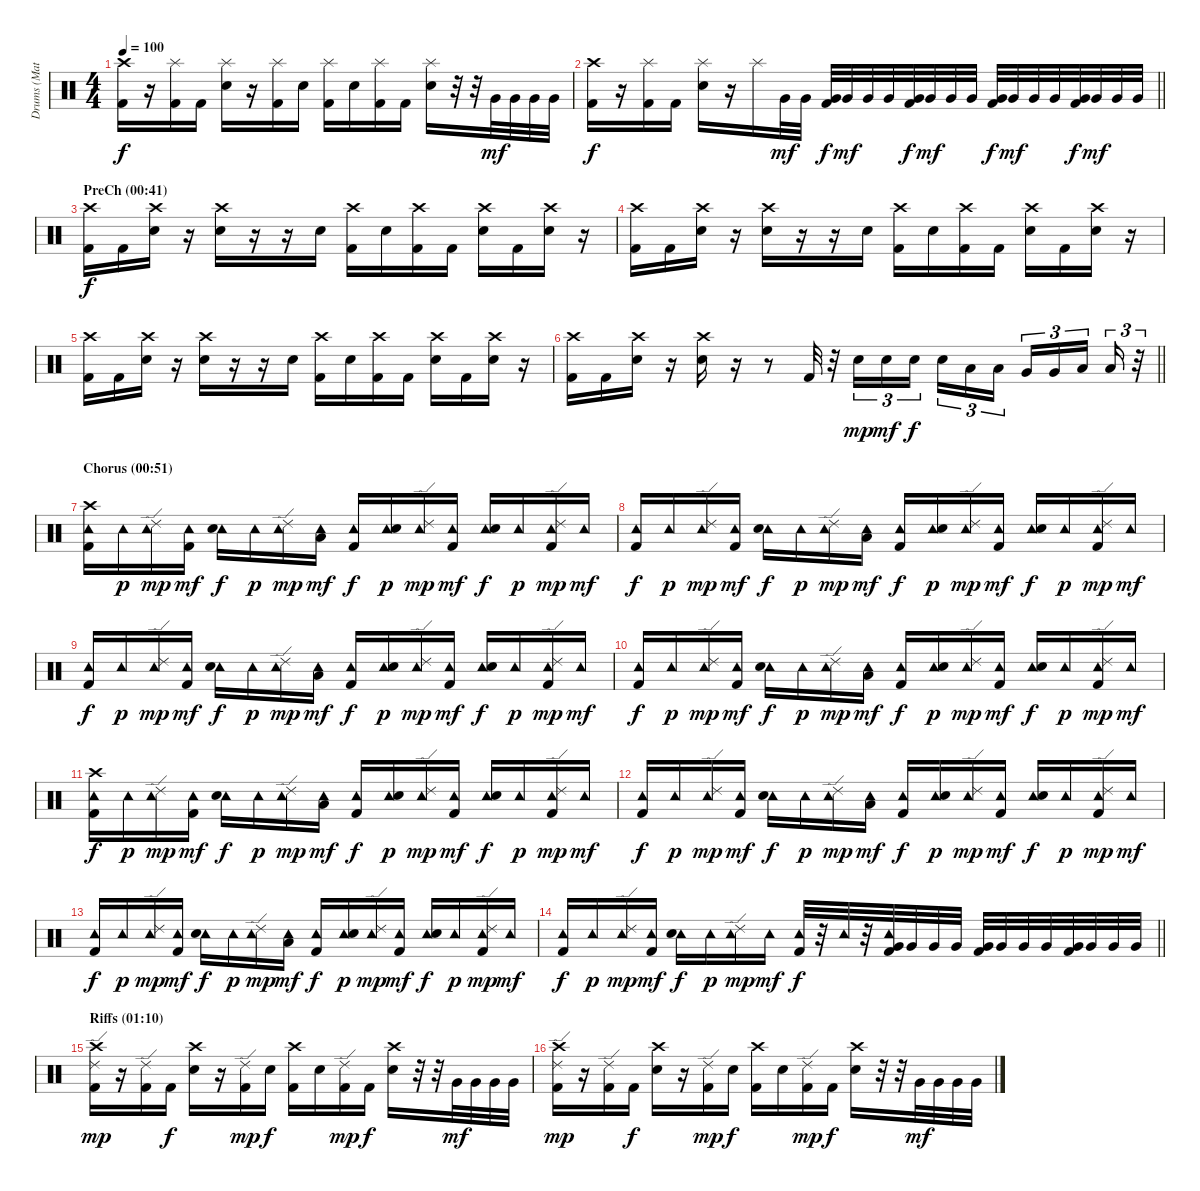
\track ("Drums (Matt Sorum)" "Drums (Mat") {instrument percussion}
\staff {score}
\articulation defaults
\ts (4 4)
\tempo 100
\clef neutral
\ks c
("Crash high (hit)" "Kick (hit) 2").16{dy f} r.16 ("Splash (hit)" "Kick (hit) 2").16 "Kick (hit) 2".16 ("Splash (hit)" "Electric Snare (hit)").16 r.16 ("Splash (hit)" "Kick (hit) 2").16 "Electric Snare (hit)".16 ("Splash (hit)" "Kick (hit) 2").16 "Electric Snare (hit)".16 ("Splash (hit)" "Kick (hit) 2").16 "Kick (hit) 2".16 ("Splash (hit)" "Electric Snare (hit)").16 r.32 r.32 "Very Low Tom (hit)".32{dy mf} "Very Low Tom (hit)".32 "Very Low Tom (hit)".32 "Very Low Tom (hit)".32 |
\barLineRight lightlight
("Crash high (hit)" "Kick (hit) 2").16{dy f} r.16 ("Splash (hit)" "Kick (hit) 2").16 "Kick (hit) 2".16 ("Splash (hit)" "Electric Snare (hit)").16 r.16 "Splash (hit)".16 "Very Low Tom (hit)".32{dy mf} "Very Low Tom (hit)".32 ("Very Low Tom (hit)" "Kick (hit) 2").32{dy f} "Very Low Tom (hit)".32{dy mf} "Very Low Tom (hit)".32 "Very Low Tom (hit)".32 ("Very Low Tom (hit)" "Kick (hit) 2").32{dy f} "Very Low Tom (hit)".32{dy mf} "Very Low Tom (hit)".32 "Very Low Tom (hit)".32 ("Very Low Tom (hit)" "Kick (hit) 2").32{dy f} "Very Low Tom (hit)".32{dy mf} "Very Low Tom (hit)".32 "Very Low Tom (hit)".32 ("Very Low Tom (hit)" "Kick (hit) 2").32{dy f} "Very Low Tom (hit)".32{dy mf} "Very Low Tom (hit)".32 "Very Low Tom (hit)".32 |
\section ("" "PreCh (00:41)")
("Crash high (hit)" "Kick (hit) 2").16{dy f} "Kick (hit) 2".16 ("Crash high (hit)" "Electric Snare (hit)").16 r.16 ("Crash high (hit)" "Electric Snare (hit)").16 r.16 r.16 "Electric Snare (hit)".16 ("Crash high (hit)" "Kick (hit) 2").16 "Electric Snare (hit)".16 ("Crash high (hit)" "Kick (hit) 2").16 "Kick (hit) 2".16 ("Crash high (hit)" "Electric Snare (hit)").16 "Kick (hit) 2".16 ("Crash high (hit)" "Electric Snare (hit)").16 r.16 |
("Crash high (hit)" "Kick (hit) 2").16 "Kick (hit) 2".16 ("Crash high (hit)" "Electric Snare (hit)").16 r.16 ("Crash high (hit)" "Electric Snare (hit)").16 r.16 r.16 "Electric Snare (hit)".16 ("Crash high (hit)" "Kick (hit) 2").16 "Electric Snare (hit)".16 ("Crash high (hit)" "Kick (hit) 2").16 "Kick (hit) 2".16 ("Crash high (hit)" "Electric Snare (hit)").16 "Kick (hit) 2".16 ("Crash high (hit)" "Electric Snare (hit)").16 r.16 |
("Crash high (hit)" "Kick (hit) 2").16 "Kick (hit) 2".16 ("Crash high (hit)" "Electric Snare (hit)").16 r.16 ("Crash high (hit)" "Electric Snare (hit)").16 r.16 r.16 "Electric Snare (hit)".16 ("Crash high (hit)" "Kick (hit) 2").16 "Electric Snare (hit)".16 ("Crash high (hit)" "Kick (hit) 2").16 "Kick (hit) 2".16 ("Crash high (hit)" "Electric Snare (hit)").16 "Kick (hit) 2".16 ("Crash high (hit)" "Electric Snare (hit)").16 r.16 |
\barLineRight lightlight
("Crash high (hit)" "Kick (hit) 2").16 "Kick (hit) 2".16 ("Crash high (hit)" "Electric Snare (hit)").16 r.16 ("Crash high (hit)" "Electric Snare (hit)").16 r.16 r.8 "Kick (hit) 2".32 r.32 "Electric Snare (hit)".16{tu (3 2) dy mp} "Electric Snare (hit)".16{tu (3 2) dy mf} "Electric Snare (hit)".16{tu (3 2) dy f beam splitsecondary} "Electric Snare (hit)".16{tu (3 2)} "Low Tom (hit)".16{tu (3 2)} "Low Tom (hit)".16{tu (3 2) beam splitsecondary} "Very Low Tom (hit)".16{tu (3 2)} "Very Low Tom (hit)".16{tu (3 2)} "Low Floor Tom (hit)".16{tu (3 2) beam splitsecondary} "Low Floor Tom (hit)".16{tu (3 2)} r.32{tu (3 2)} |
\section ("" "Chorus (00:51)")
("Tambourine (hit)" "Crash high (hit)" "Kick (hit) 2").16 "Tambourine (hit)".16{dy p} ("Tambourine (hit)" "Ride (edge) 2").16{dy mp} ("Tambourine (hit)" "Kick (hit) 2").16{dy mf} ("Tambourine (hit)" "Electric Snare (hit)").16{dy f} "Tambourine (hit)".16{dy p} ("Tambourine (hit)" "Ride (edge) 2").16{dy mp} ("Tambourine (hit)" "Low Tom (hit)").16{dy mf} ("Tambourine (hit)" "Kick (hit) 2").16{dy f} ("Tambourine (hit)" "Electric Snare (hit)").16{dy p} ("Tambourine (hit)" "Ride (edge) 2").16{dy mp} ("Tambourine (hit)" "Kick (hit) 2").16{dy mf} ("Tambourine (hit)" "Electric Snare (hit)").16{dy f} "Tambourine (hit)".16{dy p} ("Tambourine (hit)" "Ride (edge) 2" "Kick (hit) 2").16{dy mp} "Tambourine (hit)".16{dy mf} |
("Tambourine (hit)" "Kick (hit) 2").16{dy f} "Tambourine (hit)".16{dy p} ("Tambourine (hit)" "Ride (edge) 2").16{dy mp} ("Tambourine (hit)" "Kick (hit) 2").16{dy mf} ("Tambourine (hit)" "Electric Snare (hit)").16{dy f} "Tambourine (hit)".16{dy p} ("Tambourine (hit)" "Ride (edge) 2").16{dy mp} ("Tambourine (hit)" "Low Tom (hit)").16{dy mf} ("Tambourine (hit)" "Kick (hit) 2").16{dy f} ("Tambourine (hit)" "Electric Snare (hit)").16{dy p} ("Tambourine (hit)" "Ride (edge) 2").16{dy mp} ("Tambourine (hit)" "Kick (hit) 2").16{dy mf} ("Tambourine (hit)" "Electric Snare (hit)").16{dy f} "Tambourine (hit)".16{dy p} ("Tambourine (hit)" "Ride (edge) 2" "Kick (hit) 2").16{dy mp} "Tambourine (hit)".16{dy mf} |
("Tambourine (hit)" "Kick (hit) 2").16{dy f} "Tambourine (hit)".16{dy p} ("Tambourine (hit)" "Ride (edge) 2").16{dy mp} ("Tambourine (hit)" "Kick (hit) 2").16{dy mf} ("Tambourine (hit)" "Electric Snare (hit)").16{dy f} "Tambourine (hit)".16{dy p} ("Tambourine (hit)" "Ride (edge) 2").16{dy mp} ("Tambourine (hit)" "Low Tom (hit)").16{dy mf} ("Tambourine (hit)" "Kick (hit) 2").16{dy f} ("Tambourine (hit)" "Electric Snare (hit)").16{dy p} ("Tambourine (hit)" "Ride (edge) 2").16{dy mp} ("Tambourine (hit)" "Kick (hit) 2").16{dy mf} ("Tambourine (hit)" "Electric Snare (hit)").16{dy f} "Tambourine (hit)".16{dy p} ("Tambourine (hit)" "Ride (edge) 2" "Kick (hit) 2").16{dy mp} "Tambourine (hit)".16{dy mf} |
("Tambourine (hit)" "Kick (hit) 2").16{dy f} "Tambourine (hit)".16{dy p} ("Tambourine (hit)" "Ride (edge) 2").16{dy mp} ("Tambourine (hit)" "Kick (hit) 2").16{dy mf} ("Tambourine (hit)" "Electric Snare (hit)").16{dy f} "Tambourine (hit)".16{dy p} ("Tambourine (hit)" "Ride (edge) 2").16{dy mp} ("Tambourine (hit)" "Low Tom (hit)").16{dy mf} ("Tambourine (hit)" "Kick (hit) 2").16{dy f} ("Tambourine (hit)" "Electric Snare (hit)").16{dy p} ("Tambourine (hit)" "Ride (edge) 2").16{dy mp} ("Tambourine (hit)" "Kick (hit) 2").16{dy mf} ("Tambourine (hit)" "Electric Snare (hit)").16{dy f} "Tambourine (hit)".16{dy p} ("Tambourine (hit)" "Ride (edge) 2" "Kick (hit) 2").16{dy mp} "Tambourine (hit)".16{dy mf} |
("Tambourine (hit)" "Crash high (hit)" "Kick (hit) 2").16{dy f} "Tambourine (hit)".16{dy p} ("Tambourine (hit)" "Ride (edge) 2").16{dy mp} ("Tambourine (hit)" "Kick (hit) 2").16{dy mf} ("Tambourine (hit)" "Electric Snare (hit)").16{dy f} "Tambourine (hit)".16{dy p} ("Tambourine (hit)" "Ride (edge) 2").16{dy mp} ("Tambourine (hit)" "Low Tom (hit)").16{dy mf} ("Tambourine (hit)" "Kick (hit) 2").16{dy f} ("Tambourine (hit)" "Electric Snare (hit)").16{dy p} ("Tambourine (hit)" "Ride (edge) 2").16{dy mp} ("Tambourine (hit)" "Kick (hit) 2").16{dy mf} ("Tambourine (hit)" "Electric Snare (hit)").16{dy f} "Tambourine (hit)".16{dy p} ("Tambourine (hit)" "Ride (edge) 2" "Kick (hit) 2").16{dy mp} "Tambourine (hit)".16{dy mf} |
("Tambourine (hit)" "Kick (hit) 2").16{dy f} "Tambourine (hit)".16{dy p} ("Tambourine (hit)" "Ride (edge) 2").16{dy mp} ("Tambourine (hit)" "Kick (hit) 2").16{dy mf} ("Tambourine (hit)" "Electric Snare (hit)").16{dy f} "Tambourine (hit)".16{dy p} ("Tambourine (hit)" "Ride (edge) 2").16{dy mp} ("Tambourine (hit)" "Low Tom (hit)").16{dy mf} ("Tambourine (hit)" "Kick (hit) 2").16{dy f} ("Tambourine (hit)" "Electric Snare (hit)").16{dy p} ("Tambourine (hit)" "Ride (edge) 2").16{dy mp} ("Tambourine (hit)" "Kick (hit) 2").16{dy mf} ("Tambourine (hit)" "Electric Snare (hit)").16{dy f} "Tambourine (hit)".16{dy p} ("Tambourine (hit)" "Ride (edge) 2" "Kick (hit) 2").16{dy mp} "Tambourine (hit)".16{dy mf} |
("Tambourine (hit)" "Kick (hit) 2").16{dy f} "Tambourine (hit)".16{dy p} ("Tambourine (hit)" "Ride (edge) 2").16{dy mp} ("Tambourine (hit)" "Kick (hit) 2").16{dy mf} ("Tambourine (hit)" "Electric Snare (hit)").16{dy f} "Tambourine (hit)".16{dy p} ("Tambourine (hit)" "Ride (edge) 2").16{dy mp} ("Tambourine (hit)" "Low Tom (hit)").16{dy mf} ("Tambourine (hit)" "Kick (hit) 2").16{dy f} ("Tambourine (hit)" "Electric Snare (hit)").16{dy p} ("Tambourine (hit)" "Ride (edge) 2").16{dy mp} ("Tambourine (hit)" "Kick (hit) 2").16{dy mf} ("Tambourine (hit)" "Electric Snare (hit)").16{dy f} "Tambourine (hit)".16{dy p} ("Tambourine (hit)" "Ride (edge) 2" "Kick (hit) 2").16{dy mp} "Tambourine (hit)".16{dy mf} |
\barLineRight lightlight
("Tambourine (hit)" "Kick (hit) 2").16{dy f} "Tambourine (hit)".16{dy p} ("Tambourine (hit)" "Ride (edge) 2").16{dy mp} ("Tambourine (hit)" "Kick (hit) 2").16{dy mf} ("Tambourine (hit)" "Electric Snare (hit)").16{dy f} "Tambourine (hit)".16{dy p} ("Tambourine (hit)" "Ride (edge) 2").16{dy mp} "Tambourine (hit)".16{dy mf} ("Tambourine (hit)" "Kick (hit) 2").32{dy f} r.32 "Tambourine (hit)".32 r.32 ("Tambourine (hit)" "Very Low Tom (hit)" "Kick (hit) 2").32 "Very Low Tom (hit)".32 "Very Low Tom (hit)".32 "Very Low Tom (hit)".32 ("Very Low Tom (hit)" "Kick (hit) 2").32 "Very Low Tom (hit)".32 "Very Low Tom (hit)".32 "Very Low Tom (hit)".32 ("Very Low Tom (hit)" "Kick (hit) 2").32 "Very Low Tom (hit)".32 "Very Low Tom (hit)".32 "Very Low Tom (hit)".32 |
\section ("" "Riffs (01:10)")
("Crash high (hit)" "Ride (edge) 2" "Kick (hit) 2").16{dy mp} r.16 ("Ride (edge) 2" "Kick (hit) 2").16 "Kick (hit) 2".16{dy f} ("Crash high (hit)" "Electric Snare (hit)").16 r.16 ("Ride (edge) 2" "Kick (hit) 2").16{dy mp} "Electric Snare (hit)".16{dy f} ("Crash high (hit)" "Kick (hit) 2").16 "Electric Snare (hit)".16 ("Ride (edge) 2" "Kick (hit) 2").16{dy mp} "Kick (hit) 2".16{dy f} ("Crash high (hit)" "Electric Snare (hit)").16 r.32 r.32 "Very Low Tom (hit)".32{dy mf} "Very Low Tom (hit)".32 "Very Low Tom (hit)".32 "Very Low Tom (hit)".32 |
("Crash high (hit)" "Ride (edge) 2" "Kick (hit) 2").16{dy mp} r.16 ("Ride (edge) 2" "Kick (hit) 2").16 "Kick (hit) 2".16{dy f} ("Crash high (hit)" "Electric Snare (hit)").16 r.16 ("Ride (edge) 2" "Kick (hit) 2").16{dy mp} "Electric Snare (hit)".16{dy f} ("Crash high (hit)" "Kick (hit) 2").16 "Electric Snare (hit)".16 ("Ride (edge) 2" "Kick (hit) 2").16{dy mp} "Kick (hit) 2".16{dy f} ("Crash high (hit)" "Electric Snare (hit)").16 r.32 r.32 "Very Low Tom (hit)".32{dy mf} "Very Low Tom (hit)".32 "Very Low Tom (hit)".32 "Very Low Tom (hit)".32
